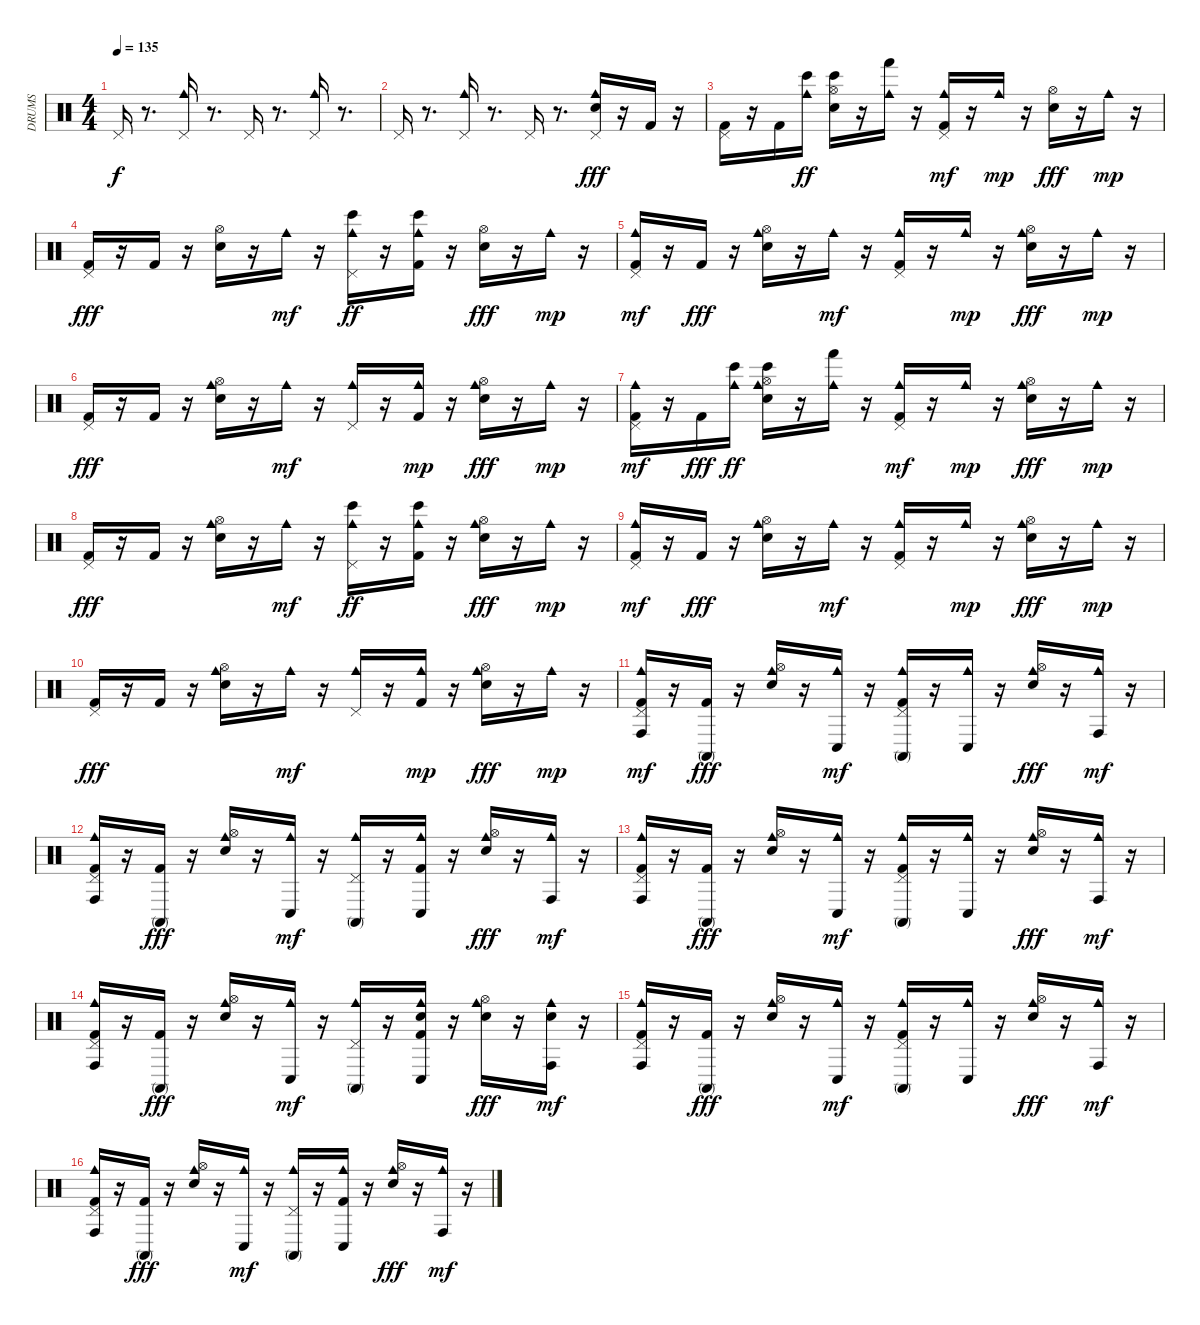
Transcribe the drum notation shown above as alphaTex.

\track ("DRUMS" "DRUMS") {instrument percussion}
\staff {score}
\articulation defaults
\ts (4 4)
\tempo 135
\clef neutral
\ks c "Pedal Hi-Hat (hit)".16{dy f}
r.8{d} ("Pedal Hi-Hat (hit)" "Cowbell medium (hit)").16 r.8{d} "Pedal Hi-Hat (hit)".16 r.8{d} ("Pedal Hi-Hat (hit)" "Cowbell medium (hit)").16 r.8{d} |
"Pedal Hi-Hat (hit)".16 r.8{d} ("Pedal Hi-Hat (hit)" "Cowbell medium (hit)").16 r.8{d} "Pedal Hi-Hat (hit)".16 r.8{d} ("Pedal Hi-Hat (hit)" "Snare (hit) 2" "Cowbell medium (hit)").16{dy fff} r.16 "Kick (hit) 2".16 r.16 |
("Kick (hit) 2" "Pedal Hi-Hat (hit)").16 r.16 "Kick (hit) 2".16 ("Cowbell medium (hit)" "Bongo High (hit)").16{dy ff} ("Snare (hit) 2" "Hi-Hat (open)" "Bongo High (hit)").16 r.16 ("Cowbell medium (hit)" "Hand (hit)").16 r.16 ("Kick (hit) 2" "Pedal Hi-Hat (hit)" "Cowbell medium (hit)").16{dy mf} r.16 "Cowbell medium (hit)".16{dy mp} r.16 ("Snare (hit) 2" "Hi-Hat (open)").16{dy fff} r.16 "Cowbell medium (hit)".16{dy mp} r.16 |
("Kick (hit) 2" "Pedal Hi-Hat (hit)").16{dy fff} r.16 "Kick (hit) 2".16 r.16 ("Snare (hit) 2" "Hi-Hat (open)").16 r.16 "Cowbell medium (hit)".16{dy mf} r.16 ("Pedal Hi-Hat (hit)" "Cowbell medium (hit)" "Bongo High (hit)").16{dy ff} r.16 ("Kick (hit) 2" "Cowbell medium (hit)" "Bongo High (hit)").16 r.16 ("Snare (hit) 2" "Hi-Hat (open)").16{dy fff} r.16 "Cowbell medium (hit)".16{dy mp} r.16 |
("Kick (hit) 2" "Pedal Hi-Hat (hit)" "Cowbell medium (hit)").16{dy mf} r.16 "Kick (hit) 2".16{dy fff} r.16 ("Snare (hit) 2" "Hi-Hat (open)" "Cowbell medium (hit)").16 r.16 "Cowbell medium (hit)".16{dy mf} r.16 ("Kick (hit) 2" "Pedal Hi-Hat (hit)" "Cowbell medium (hit)").16 r.16 "Cowbell medium (hit)".16{dy mp} r.16 ("Snare (hit) 2" "Hi-Hat (open)" "Cowbell medium (hit)").16{dy fff} r.16 "Cowbell medium (hit)".16{dy mp} r.16 |
("Kick (hit) 2" "Pedal Hi-Hat (hit)").16{dy fff} r.16 "Kick (hit) 2".16 r.16 ("Snare (hit) 2" "Hi-Hat (open)" "Cowbell medium (hit)").16 r.16 "Cowbell medium (hit)".16{dy mf} r.16 ("Pedal Hi-Hat (hit)" "Cowbell medium (hit)").16 r.16 ("Kick (hit) 2" "Cowbell medium (hit)").16{dy mp} r.16 ("Snare (hit) 2" "Hi-Hat (open)" "Cowbell medium (hit)").16{dy fff} r.16 "Cowbell medium (hit)".16{dy mp} r.16 |
("Kick (hit) 2" "Pedal Hi-Hat (hit)" "Cowbell medium (hit)").16{dy mf} r.16 "Kick (hit) 2".16{dy fff} ("Cowbell medium (hit)" "Bongo High (hit)").16{dy ff} ("Snare (hit) 2" "Hi-Hat (open)" "Cowbell medium (hit)" "Bongo High (hit)").16 r.16 ("Cowbell medium (hit)" "Hand (hit)").16 r.16 ("Kick (hit) 2" "Pedal Hi-Hat (hit)" "Cowbell medium (hit)").16{dy mf} r.16 "Cowbell medium (hit)".16{dy mp} r.16 ("Snare (hit) 2" "Hi-Hat (open)" "Cowbell medium (hit)").16{dy fff} r.16 "Cowbell medium (hit)".16{dy mp} r.16 |
("Kick (hit) 2" "Pedal Hi-Hat (hit)").16{dy fff} r.16 "Kick (hit) 2".16 r.16 ("Snare (hit) 2" "Hi-Hat (open)" "Cowbell medium (hit)").16 r.16 "Cowbell medium (hit)".16{dy mf} r.16 ("Pedal Hi-Hat (hit)" "Cowbell medium (hit)" "Bongo High (hit)").16{dy ff} r.16 ("Kick (hit) 2" "Cowbell medium (hit)" "Bongo High (hit)").16 r.16 ("Snare (hit) 2" "Hi-Hat (open)" "Cowbell medium (hit)").16{dy fff} r.16 "Cowbell medium (hit)".16{dy mp} r.16 |
("Kick (hit) 2" "Pedal Hi-Hat (hit)" "Cowbell medium (hit)").16{dy mf} r.16 "Kick (hit) 2".16{dy fff} r.16 ("Snare (hit) 2" "Hi-Hat (open)" "Cowbell medium (hit)").16 r.16 "Cowbell medium (hit)".16{dy mf} r.16 ("Kick (hit) 2" "Pedal Hi-Hat (hit)" "Cowbell medium (hit)").16 r.16 "Cowbell medium (hit)".16{dy mp} r.16 ("Snare (hit) 2" "Hi-Hat (open)" "Cowbell medium (hit)").16{dy fff} r.16 "Cowbell medium (hit)".16{dy mp} r.16 |
("Kick (hit) 2" "Pedal Hi-Hat (hit)").16{dy fff} r.16 "Kick (hit) 2".16 r.16 ("Snare (hit) 2" "Hi-Hat (open)" "Cowbell medium (hit)").16 r.16 "Cowbell medium (hit)".16{dy mf} r.16 ("Pedal Hi-Hat (hit)" "Cowbell medium (hit)").16 r.16 ("Kick (hit) 2" "Cowbell medium (hit)").16{dy mp} r.16 ("Snare (hit) 2" "Hi-Hat (open)" "Cowbell medium (hit)").16{dy fff} r.16 "Cowbell medium (hit)".16{dy mp} r.16 |
("Kick (hit) 2" "Pedal Hi-Hat (hit)" "Cowbell medium (hit)" "Conga high (hit)").16{dy mf} r.16 ("Kick (hit) 2" "Conga high (mute)").16{dy fff} r.16 ("Snare (hit) 2" "Hi-Hat (open)" "Cowbell medium (hit)").16 r.16 ("Cowbell medium (hit)" "Conga low (hit)").16{dy mf} r.16 ("Kick (hit) 2" "Pedal Hi-Hat (hit)" "Cowbell medium (hit)" "Conga high (mute)").16 r.16 ("Cowbell medium (hit)" "Conga low (hit)").16 r.16 ("Snare (hit) 2" "Hi-Hat (open)" "Cowbell medium (hit)").16{dy fff} r.16 ("Cowbell medium (hit)" "Conga high (hit)").16{dy mf} r.16 |
("Kick (hit) 2" "Pedal Hi-Hat (hit)" "Cowbell medium (hit)" "Conga high (hit)").16 r.16 ("Kick (hit) 2" "Conga high (mute)").16{dy fff} r.16 ("Snare (hit) 2" "Hi-Hat (open)" "Cowbell medium (hit)").16 r.16 ("Cowbell medium (hit)" "Conga low (hit)").16{dy mf} r.16 ("Pedal Hi-Hat (hit)" "Cowbell medium (hit)" "Conga high (mute)").16 r.16 ("Kick (hit) 2" "Cowbell medium (hit)" "Conga low (hit)").16 r.16 ("Snare (hit) 2" "Hi-Hat (open)" "Cowbell medium (hit)").16{dy fff} r.16 ("Cowbell medium (hit)" "Conga high (hit)").16{dy mf} r.16 |
("Kick (hit) 2" "Pedal Hi-Hat (hit)" "Cowbell medium (hit)" "Conga high (hit)").16 r.16 ("Kick (hit) 2" "Conga high (mute)").16{dy fff} r.16 ("Snare (hit) 2" "Hi-Hat (open)" "Cowbell medium (hit)").16 r.16 ("Cowbell medium (hit)" "Conga low (hit)").16{dy mf} r.16 ("Kick (hit) 2" "Pedal Hi-Hat (hit)" "Cowbell medium (hit)" "Conga high (mute)").16 r.16 ("Cowbell medium (hit)" "Conga low (hit)").16 r.16 ("Snare (hit) 2" "Hi-Hat (open)" "Cowbell medium (hit)").16{dy fff} r.16 ("Cowbell medium (hit)" "Conga high (hit)").16{dy mf} r.16 |
("Kick (hit) 2" "Pedal Hi-Hat (hit)" "Cowbell medium (hit)" "Conga high (hit)").16 r.16 ("Kick (hit) 2" "Conga high (mute)").16{dy fff} r.16 ("Snare (hit) 2" "Hi-Hat (open)" "Cowbell medium (hit)").16 r.16 ("Cowbell medium (hit)" "Conga low (hit)").16{dy mf} r.16 ("Pedal Hi-Hat (hit)" "Cowbell medium (hit)" "Conga high (mute)").16 r.16 ("Kick (hit) 2" "Cowbell medium (hit)" "Hand Clap (hit)" "Conga low (hit)").16 r.16 ("Snare (hit) 2" "Hi-Hat (open)" "Cowbell medium (hit)").16{dy fff} r.16 ("Cowbell medium (hit)" "Hand Clap (hit)" "Conga high (hit)").16{dy mf} r.16 |
("Kick (hit) 2" "Pedal Hi-Hat (hit)" "Cowbell medium (hit)" "Conga high (hit)").16 r.16 ("Kick (hit) 2" "Conga high (mute)").16{dy fff} r.16 ("Snare (hit) 2" "Hi-Hat (open)" "Cowbell medium (hit)").16 r.16 ("Cowbell medium (hit)" "Conga low (hit)").16{dy mf} r.16 ("Kick (hit) 2" "Pedal Hi-Hat (hit)" "Cowbell medium (hit)" "Conga high (mute)").16 r.16 ("Cowbell medium (hit)" "Conga low (hit)").16 r.16 ("Snare (hit) 2" "Hi-Hat (open)" "Cowbell medium (hit)").16{dy fff} r.16 ("Cowbell medium (hit)" "Conga high (hit)").16{dy mf} r.16 |
("Kick (hit) 2" "Pedal Hi-Hat (hit)" "Cowbell medium (hit)" "Conga high (hit)").16 r.16 ("Kick (hit) 2" "Conga high (mute)").16{dy fff} r.16 ("Snare (hit) 2" "Hi-Hat (open)" "Cowbell medium (hit)").16 r.16 ("Cowbell medium (hit)" "Conga low (hit)").16{dy mf} r.16 ("Pedal Hi-Hat (hit)" "Cowbell medium (hit)" "Conga high (mute)").16 r.16 ("Kick (hit) 2" "Cowbell medium (hit)" "Conga low (hit)").16 r.16 ("Snare (hit) 2" "Hi-Hat (open)" "Cowbell medium (hit)").16{dy fff} r.16 ("Cowbell medium (hit)" "Conga high (hit)").16{dy mf} r.16
